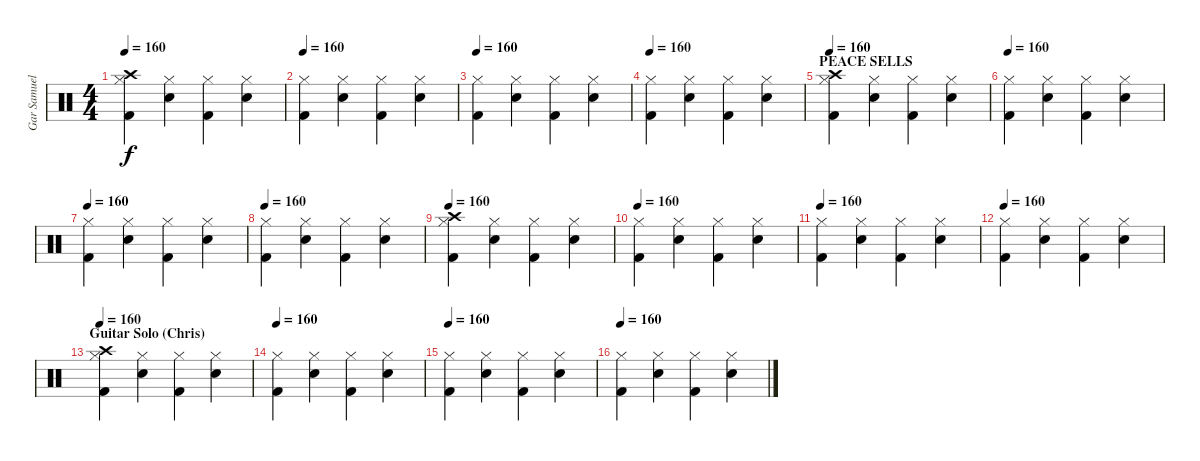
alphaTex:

\track ("Gar Samuelson (Drums)" "Gar Samuel") {instrument percussion}
\staff {score}
\articulation defaults
\ts (4 4)
\tempo 160
\clef neutral
\ks c
("Crash high (hit)" "Hi-Hat (closed)" "Kick (hit) 2").4{dy f} ("Electric Snare (hit)" "Hi-Hat (closed)").4 ("Hi-Hat (closed)" "Kick (hit) 2").4 ("Electric Snare (hit)" "Hi-Hat (closed)").4 |
\tempo 160
("Hi-Hat (closed)" "Kick (hit) 2").4 ("Electric Snare (hit)" "Hi-Hat (closed)").4 ("Hi-Hat (closed)" "Kick (hit) 2").4 ("Electric Snare (hit)" "Hi-Hat (closed)").4 |
\tempo 160
("Hi-Hat (closed)" "Kick (hit) 2").4 ("Electric Snare (hit)" "Hi-Hat (closed)").4 ("Hi-Hat (closed)" "Kick (hit) 2").4 ("Electric Snare (hit)" "Hi-Hat (closed)").4 |
\tempo 160
("Hi-Hat (closed)" "Kick (hit) 2").4 ("Electric Snare (hit)" "Hi-Hat (closed)").4 ("Hi-Hat (closed)" "Kick (hit) 2").4 ("Electric Snare (hit)" "Hi-Hat (closed)").4 |
\section ("" "PEACE SELLS")
\tempo 160
("Crash high (hit)" "Hi-Hat (closed)" "Kick (hit) 2").4 ("Electric Snare (hit)" "Hi-Hat (closed)").4 ("Hi-Hat (closed)" "Kick (hit) 2").4 ("Electric Snare (hit)" "Hi-Hat (closed)").4 |
\tempo 160
("Hi-Hat (closed)" "Kick (hit) 2").4 ("Electric Snare (hit)" "Hi-Hat (closed)").4 ("Hi-Hat (closed)" "Kick (hit) 2").4 ("Electric Snare (hit)" "Hi-Hat (closed)").4 |
\tempo 160
("Hi-Hat (closed)" "Kick (hit) 2").4 ("Electric Snare (hit)" "Hi-Hat (closed)").4 ("Hi-Hat (closed)" "Kick (hit) 2").4 ("Electric Snare (hit)" "Hi-Hat (closed)").4 |
\tempo 160
("Hi-Hat (closed)" "Kick (hit) 2").4 ("Electric Snare (hit)" "Hi-Hat (closed)").4 ("Hi-Hat (closed)" "Kick (hit) 2").4 ("Electric Snare (hit)" "Hi-Hat (closed)").4 |
\tempo 160
("Crash high (hit)" "Hi-Hat (closed)" "Kick (hit) 2").4 ("Electric Snare (hit)" "Hi-Hat (closed)").4 ("Hi-Hat (closed)" "Kick (hit) 2").4 ("Electric Snare (hit)" "Hi-Hat (closed)").4 |
\tempo 160
("Hi-Hat (closed)" "Kick (hit) 2").4 ("Electric Snare (hit)" "Hi-Hat (closed)").4 ("Hi-Hat (closed)" "Kick (hit) 2").4 ("Electric Snare (hit)" "Hi-Hat (closed)").4 |
\tempo 160
("Hi-Hat (closed)" "Kick (hit) 2").4 ("Electric Snare (hit)" "Hi-Hat (closed)").4 ("Hi-Hat (closed)" "Kick (hit) 2").4 ("Electric Snare (hit)" "Hi-Hat (closed)").4 |
\tempo 160
("Hi-Hat (closed)" "Kick (hit) 2").4 ("Electric Snare (hit)" "Hi-Hat (closed)").4 ("Hi-Hat (closed)" "Kick (hit) 2").4 ("Electric Snare (hit)" "Hi-Hat (closed)").4 |
\section ("" "Guitar Solo (Chris)")
\tempo 160
("Crash high (hit)" "Hi-Hat (closed)" "Kick (hit) 2").4 ("Electric Snare (hit)" "Hi-Hat (closed)").4 ("Hi-Hat (closed)" "Kick (hit) 2").4 ("Electric Snare (hit)" "Hi-Hat (closed)").4 |
\tempo 160
("Hi-Hat (closed)" "Kick (hit) 2").4 ("Electric Snare (hit)" "Hi-Hat (closed)").4 ("Hi-Hat (closed)" "Kick (hit) 2").4 ("Electric Snare (hit)" "Hi-Hat (closed)").4 |
\tempo 160
("Hi-Hat (closed)" "Kick (hit) 2").4 ("Electric Snare (hit)" "Hi-Hat (closed)").4 ("Hi-Hat (closed)" "Kick (hit) 2").4 ("Electric Snare (hit)" "Hi-Hat (closed)").4 |
\tempo 160
("Hi-Hat (closed)" "Kick (hit) 2").4 ("Electric Snare (hit)" "Hi-Hat (closed)").4 ("Hi-Hat (closed)" "Kick (hit) 2").4 ("Electric Snare (hit)" "Hi-Hat (closed)").4
